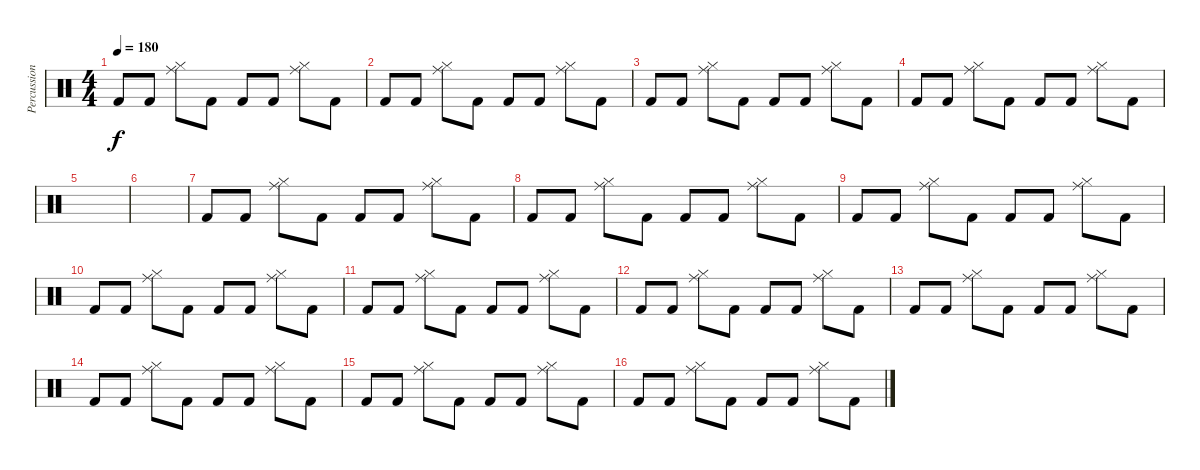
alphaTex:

\track ("Percussions" "Percussion") {instrument percussion}
\staff {score}
\articulation defaults
\ts (4 4)
\tempo 180
\clef neutral
\ks c "Kick (hit) 2".8{dy f} "Kick (hit) 2".8
("Hi-Hat (closed)" "Ride (middle)").8 "Kick (hit) 2".8 "Kick (hit) 2".8 "Kick (hit) 2".8 ("Hi-Hat (closed)" "Ride (middle)").8 "Kick (hit) 2".8 |
"Kick (hit) 2".8 "Kick (hit) 2".8 ("Hi-Hat (closed)" "Ride (middle)").8 "Kick (hit) 2".8 "Kick (hit) 2".8 "Kick (hit) 2".8 ("Hi-Hat (closed)" "Ride (middle)").8 "Kick (hit) 2".8 |
"Kick (hit) 2".8 "Kick (hit) 2".8 ("Hi-Hat (closed)" "Ride (middle)").8 "Kick (hit) 2".8 "Kick (hit) 2".8 "Kick (hit) 2".8 ("Hi-Hat (closed)" "Ride (middle)").8 "Kick (hit) 2".8 |
"Kick (hit) 2".8 "Kick (hit) 2".8 ("Hi-Hat (closed)" "Ride (middle)").8 "Kick (hit) 2".8 "Kick (hit) 2".8 "Kick (hit) 2".8 ("Hi-Hat (closed)" "Ride (middle)").8 "Kick (hit) 2".8 |
|
|
"Kick (hit) 2".8 "Kick (hit) 2".8 ("Hi-Hat (closed)" "Ride (middle)").8 "Kick (hit) 2".8 "Kick (hit) 2".8 "Kick (hit) 2".8 ("Hi-Hat (closed)" "Ride (middle)").8 "Kick (hit) 2".8 |
"Kick (hit) 2".8 "Kick (hit) 2".8 ("Hi-Hat (closed)" "Ride (middle)").8 "Kick (hit) 2".8 "Kick (hit) 2".8 "Kick (hit) 2".8 ("Hi-Hat (closed)" "Ride (middle)").8 "Kick (hit) 2".8 |
"Kick (hit) 2".8 "Kick (hit) 2".8 ("Hi-Hat (closed)" "Ride (middle)").8 "Kick (hit) 2".8 "Kick (hit) 2".8 "Kick (hit) 2".8 ("Hi-Hat (closed)" "Ride (middle)").8 "Kick (hit) 2".8 |
"Kick (hit) 2".8 "Kick (hit) 2".8 ("Hi-Hat (closed)" "Ride (middle)").8 "Kick (hit) 2".8 "Kick (hit) 2".8 "Kick (hit) 2".8 ("Hi-Hat (closed)" "Ride (middle)").8 "Kick (hit) 2".8 |
"Kick (hit) 2".8 "Kick (hit) 2".8 ("Hi-Hat (closed)" "Ride (middle)").8 "Kick (hit) 2".8 "Kick (hit) 2".8 "Kick (hit) 2".8 ("Hi-Hat (closed)" "Ride (middle)").8 "Kick (hit) 2".8 |
"Kick (hit) 2".8 "Kick (hit) 2".8 ("Hi-Hat (closed)" "Ride (middle)").8 "Kick (hit) 2".8 "Kick (hit) 2".8 "Kick (hit) 2".8 ("Hi-Hat (closed)" "Ride (middle)").8 "Kick (hit) 2".8 |
"Kick (hit) 2".8 "Kick (hit) 2".8 ("Hi-Hat (closed)" "Ride (middle)").8 "Kick (hit) 2".8 "Kick (hit) 2".8 "Kick (hit) 2".8 ("Hi-Hat (closed)" "Ride (middle)").8 "Kick (hit) 2".8 |
"Kick (hit) 2".8 "Kick (hit) 2".8 ("Hi-Hat (closed)" "Ride (middle)").8 "Kick (hit) 2".8 "Kick (hit) 2".8 "Kick (hit) 2".8 ("Hi-Hat (closed)" "Ride (middle)").8 "Kick (hit) 2".8 |
"Kick (hit) 2".8 "Kick (hit) 2".8 ("Hi-Hat (closed)" "Ride (middle)").8 "Kick (hit) 2".8 "Kick (hit) 2".8 "Kick (hit) 2".8 ("Hi-Hat (closed)" "Ride (middle)").8 "Kick (hit) 2".8 |
"Kick (hit) 2".8 "Kick (hit) 2".8 ("Hi-Hat (closed)" "Ride (middle)").8 "Kick (hit) 2".8 "Kick (hit) 2".8 "Kick (hit) 2".8 ("Hi-Hat (closed)" "Ride (middle)").8 "Kick (hit) 2".8
